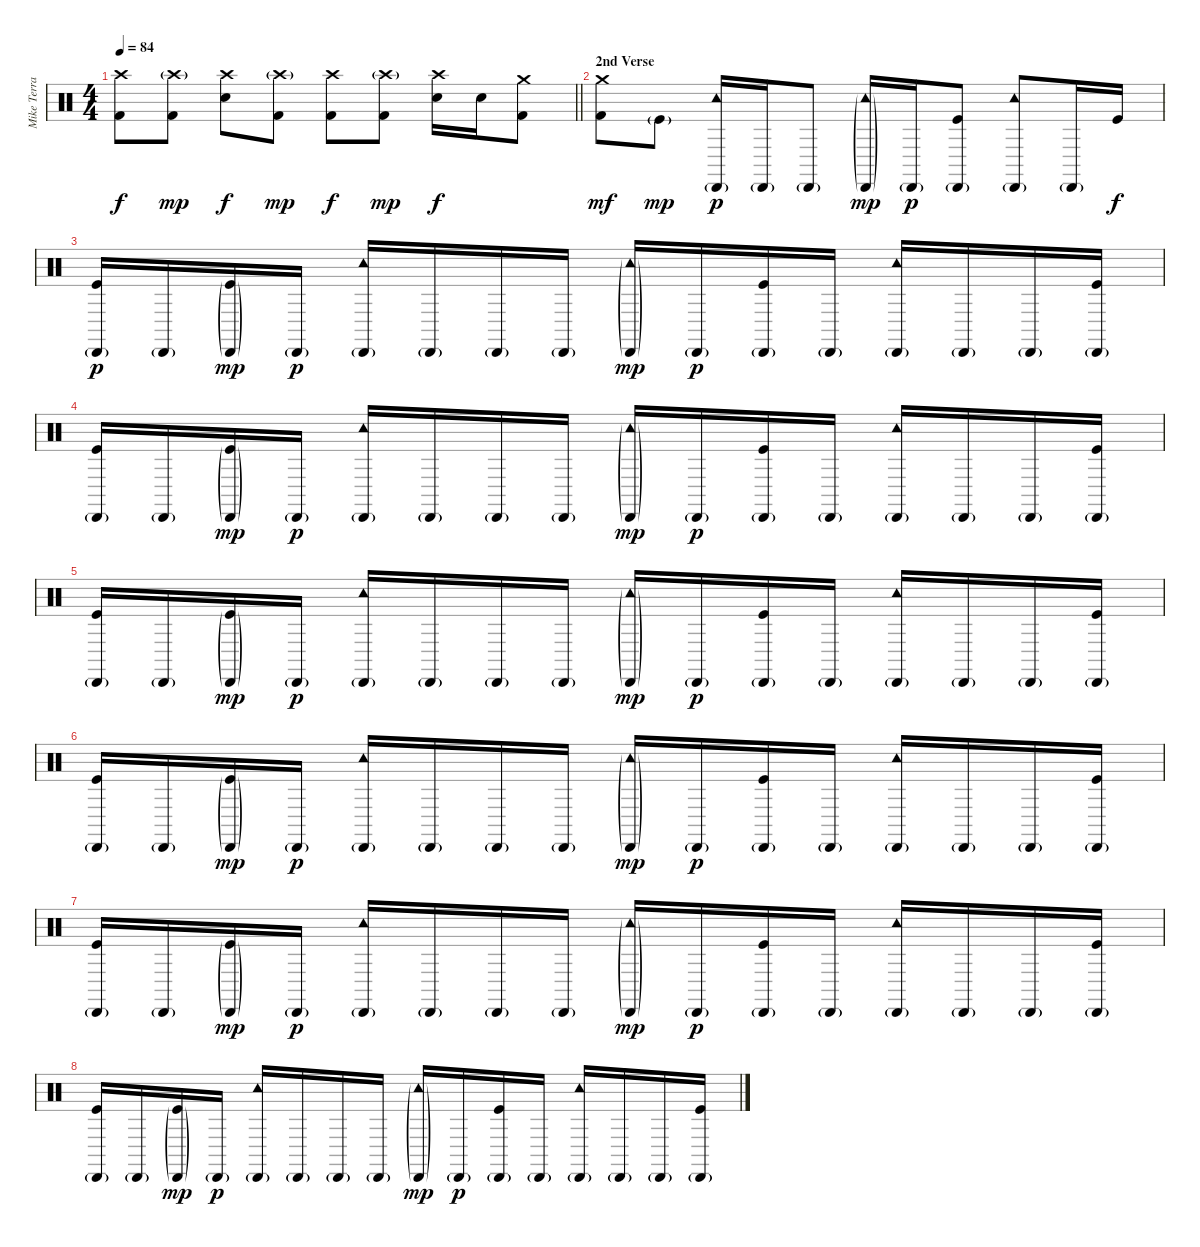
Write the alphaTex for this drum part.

\track ("Mike Terrana" "Mike Terra") {instrument percussion}
\staff {score}
\articulation defaults
\ts (4 4)
\tempo 84
\clef neutral
\barLineRight lightlight
\ks c
("Crash high (hit)" "Kick (hit) 2").8{dy f} ("Crash high (hit)"{g} "Kick (hit) 2").8{dy mp} ("Crash high (hit)" "Snare (hit) 2").8{dy f} ("Crash high (hit)"{g} "Kick (hit) 2").8{dy mp} ("Crash high (hit)" "Kick (hit) 2").8{dy f} ("Crash high (hit)"{g} "Kick (hit) 2").8{dy mp} ("Crash high (hit)" "Snare (hit) 2").16{dy f} "Snare (hit) 2".16 ("Crash medium (hit)" "Kick (hit) 2").8 |
\section ("" "2nd Verse")
("Crash medium (hit)" "Kick (hit) 2").8{dy mf} "Kick (hit)"{g}.8{dy mp} ("Cabasa (hit)"{g} "Tambourine (hit)").16{dy p} "Cabasa (hit)"{g}.16 "Cabasa (hit)"{g}.8 ("Cabasa (hit)"{g} "Tambourine (hit)"{g}).16{dy mp} "Cabasa (hit)"{g}.16{dy p} ("Cabasa (hit)"{g} "Kick (hit)").8 ("Cabasa (hit)"{g} "Tambourine (hit)").8 "Cabasa (hit)"{g}.16 "Kick (hit)".16{dy f} |
("Cabasa (hit)"{g} "Kick (hit)").16{dy p} "Cabasa (hit)"{g}.16 ("Cabasa (hit)"{g} "Kick (hit)"{g}).16{dy mp} "Cabasa (hit)"{g}.16{dy p} ("Cabasa (hit)"{g} "Tambourine (hit)").16 "Cabasa (hit)"{g}.16 "Cabasa (hit)"{g}.16 "Cabasa (hit)"{g}.16 ("Cabasa (hit)"{g} "Tambourine (hit)"{g}).16{dy mp} "Cabasa (hit)"{g}.16{dy p} ("Cabasa (hit)"{g} "Kick (hit)").16 "Cabasa (hit)"{g}.16 ("Cabasa (hit)"{g} "Tambourine (hit)").16 "Cabasa (hit)"{g}.16 "Cabasa (hit)"{g}.16 ("Cabasa (hit)"{g} "Kick (hit)").16 |
("Cabasa (hit)"{g} "Kick (hit)").16 "Cabasa (hit)"{g}.16 ("Cabasa (hit)"{g} "Kick (hit)"{g}).16{dy mp} "Cabasa (hit)"{g}.16{dy p} ("Cabasa (hit)"{g} "Tambourine (hit)").16 "Cabasa (hit)"{g}.16 "Cabasa (hit)"{g}.16 "Cabasa (hit)"{g}.16 ("Cabasa (hit)"{g} "Tambourine (hit)"{g}).16{dy mp} "Cabasa (hit)"{g}.16{dy p} ("Cabasa (hit)"{g} "Kick (hit)").16 "Cabasa (hit)"{g}.16 ("Cabasa (hit)"{g} "Tambourine (hit)").16 "Cabasa (hit)"{g}.16 "Cabasa (hit)"{g}.16 ("Cabasa (hit)"{g} "Kick (hit)").16 |
("Cabasa (hit)"{g} "Kick (hit)").16 "Cabasa (hit)"{g}.16 ("Cabasa (hit)"{g} "Kick (hit)"{g}).16{dy mp} "Cabasa (hit)"{g}.16{dy p} ("Cabasa (hit)"{g} "Tambourine (hit)").16 "Cabasa (hit)"{g}.16 "Cabasa (hit)"{g}.16 "Cabasa (hit)"{g}.16 ("Cabasa (hit)"{g} "Tambourine (hit)"{g}).16{dy mp} "Cabasa (hit)"{g}.16{dy p} ("Cabasa (hit)"{g} "Kick (hit)").16 "Cabasa (hit)"{g}.16 ("Cabasa (hit)"{g} "Tambourine (hit)").16 "Cabasa (hit)"{g}.16 "Cabasa (hit)"{g}.16 ("Cabasa (hit)"{g} "Kick (hit)").16 |
("Cabasa (hit)"{g} "Kick (hit)").16 "Cabasa (hit)"{g}.16 ("Cabasa (hit)"{g} "Kick (hit)"{g}).16{dy mp} "Cabasa (hit)"{g}.16{dy p} ("Cabasa (hit)"{g} "Tambourine (hit)").16 "Cabasa (hit)"{g}.16 "Cabasa (hit)"{g}.16 "Cabasa (hit)"{g}.16 ("Cabasa (hit)"{g} "Tambourine (hit)"{g}).16{dy mp} "Cabasa (hit)"{g}.16{dy p} ("Cabasa (hit)"{g} "Kick (hit)").16 "Cabasa (hit)"{g}.16 ("Cabasa (hit)"{g} "Tambourine (hit)").16 "Cabasa (hit)"{g}.16 "Cabasa (hit)"{g}.16 ("Cabasa (hit)"{g} "Kick (hit)").16 |
("Cabasa (hit)"{g} "Kick (hit)").16 "Cabasa (hit)"{g}.16 ("Cabasa (hit)"{g} "Kick (hit)"{g}).16{dy mp} "Cabasa (hit)"{g}.16{dy p} ("Cabasa (hit)"{g} "Tambourine (hit)").16 "Cabasa (hit)"{g}.16 "Cabasa (hit)"{g}.16 "Cabasa (hit)"{g}.16 ("Cabasa (hit)"{g} "Tambourine (hit)"{g}).16{dy mp} "Cabasa (hit)"{g}.16{dy p} ("Cabasa (hit)"{g} "Kick (hit)").16 "Cabasa (hit)"{g}.16 ("Cabasa (hit)"{g} "Tambourine (hit)").16 "Cabasa (hit)"{g}.16 "Cabasa (hit)"{g}.16 ("Cabasa (hit)"{g} "Kick (hit)").16 |
("Cabasa (hit)"{g} "Kick (hit)").16 "Cabasa (hit)"{g}.16 ("Cabasa (hit)"{g} "Kick (hit)"{g}).16{dy mp} "Cabasa (hit)"{g}.16{dy p} ("Cabasa (hit)"{g} "Tambourine (hit)").16 "Cabasa (hit)"{g}.16 "Cabasa (hit)"{g}.16 "Cabasa (hit)"{g}.16 ("Cabasa (hit)"{g} "Tambourine (hit)"{g}).16{dy mp} "Cabasa (hit)"{g}.16{dy p} ("Cabasa (hit)"{g} "Kick (hit)").16 "Cabasa (hit)"{g}.16 ("Cabasa (hit)"{g} "Tambourine (hit)").16 "Cabasa (hit)"{g}.16 "Cabasa (hit)"{g}.16 ("Cabasa (hit)"{g} "Kick (hit)").16
